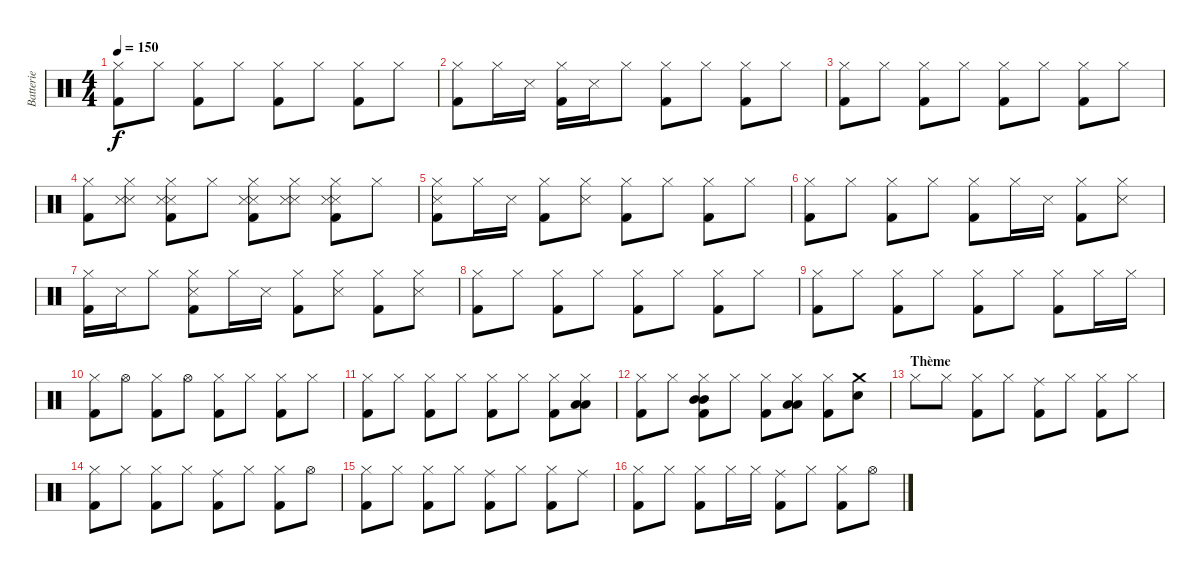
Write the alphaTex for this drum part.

\track ("Batterie" "Batterie") {instrument percussion}
\staff {score}
\articulation defaults
\ts (4 4)
\tempo 150
\clef neutral
\ks c
("Hi-Hat (closed)" "Kick (hit) 2").8{dy f} "Hi-Hat (closed)".8 ("Hi-Hat (closed)" "Kick (hit) 2").8 "Hi-Hat (closed)".8 ("Hi-Hat (closed)" "Kick (hit) 2").8 "Hi-Hat (closed)".8 ("Hi-Hat (closed)" "Kick (hit) 2").8 "Hi-Hat (closed)".8 |
("Hi-Hat (closed)" "Kick (hit) 2").8 "Hi-Hat (closed)".16 "Snare (side stick) 3".16 ("Hi-Hat (closed)" "Kick (hit) 2").16 "Snare (side stick) 3".16 "Hi-Hat (closed)".8 ("Hi-Hat (closed)" "Kick (hit) 2").8 "Hi-Hat (closed)".8 ("Hi-Hat (closed)" "Kick (hit) 2").8 "Hi-Hat (closed)".8 |
("Hi-Hat (closed)" "Kick (hit) 2").8 "Hi-Hat (closed)".8 ("Hi-Hat (closed)" "Kick (hit) 2").8 "Hi-Hat (closed)".8 ("Hi-Hat (closed)" "Kick (hit) 2").8 "Hi-Hat (closed)".8 ("Hi-Hat (closed)" "Kick (hit) 2").8 "Hi-Hat (closed)".8 |
("Hi-Hat (closed)" "Kick (hit) 2").8 ("Hi-Hat (closed)" "Snare (side stick) 3" "Snare (side stick) 3").8 ("Hi-Hat (closed)" "Kick (hit) 2" "Snare (side stick) 3" "Snare (side stick) 3").8 "Hi-Hat (closed)".8 ("Hi-Hat (closed)" "Kick (hit) 2" "Snare (side stick) 3" "Snare (side stick) 3").8 ("Hi-Hat (closed)" "Snare (side stick) 3" "Snare (side stick) 3").8 ("Hi-Hat (closed)" "Kick (hit) 2" "Snare (side stick) 3" "Snare (side stick) 3").8 "Hi-Hat (closed)".8 |
("Hi-Hat (closed)" "Kick (hit) 2" "Snare (side stick) 3").8 "Hi-Hat (closed)".16 "Snare (side stick) 3".16 ("Hi-Hat (closed)" "Kick (hit) 2").8 ("Hi-Hat (closed)" "Snare (side stick) 3").8 ("Hi-Hat (closed)" "Kick (hit) 2").8 "Hi-Hat (closed)".8 ("Hi-Hat (closed)" "Kick (hit) 2").8 "Hi-Hat (closed)".8 |
("Hi-Hat (closed)" "Kick (hit) 2").8 "Hi-Hat (closed)".8 ("Hi-Hat (closed)" "Kick (hit) 2").8 "Hi-Hat (closed)".8 ("Hi-Hat (closed)" "Kick (hit) 2").8 "Hi-Hat (closed)".16 "Snare (side stick) 3".16 ("Hi-Hat (closed)" "Kick (hit) 2").8 ("Hi-Hat (closed)" "Snare (side stick) 3").8 |
("Hi-Hat (closed)" "Kick (hit) 2").16 "Snare (side stick) 3".16 "Hi-Hat (closed)".8 ("Hi-Hat (closed)" "Kick (hit) 2" "Snare (side stick) 3").8 "Hi-Hat (closed)".16 "Snare (side stick) 3".16 ("Hi-Hat (closed)" "Kick (hit) 2").8 ("Hi-Hat (closed)" "Snare (side stick) 3").8 ("Hi-Hat (closed)" "Kick (hit) 2").8 ("Hi-Hat (closed)" "Snare (side stick) 3").8 |
("Hi-Hat (closed)" "Kick (hit) 2").8 "Hi-Hat (closed)".8 ("Hi-Hat (closed)" "Kick (hit) 2").8 "Hi-Hat (closed)".8 ("Hi-Hat (closed)" "Kick (hit) 2").8 "Hi-Hat (closed)".8 ("Hi-Hat (closed)" "Kick (hit) 2").8 "Hi-Hat (closed)".8 |
("Hi-Hat (closed)" "Kick (hit) 2").8 "Hi-Hat (closed)".8 ("Hi-Hat (closed)" "Kick (hit) 2").8 "Hi-Hat (closed)".8 ("Hi-Hat (closed)" "Kick (hit) 2").8 "Hi-Hat (closed)".8 ("Hi-Hat (closed)" "Kick (hit) 2").8 "Hi-Hat (closed)".16 "Hi-Hat (closed)".16 |
("Hi-Hat (closed)" "Kick (hit) 2").8 "Hi-Hat (open)".8 ("Hi-Hat (closed)" "Kick (hit) 2").8 "Hi-Hat (open)".8 ("Hi-Hat (closed)" "Kick (hit) 2").8 "Hi-Hat (closed)".8 ("Hi-Hat (closed)" "Kick (hit) 2").8 "Hi-Hat (closed)".8 |
("Hi-Hat (closed)" "Kick (hit) 2").8 "Hi-Hat (closed)".8 ("Hi-Hat (closed)" "Kick (hit) 2").8 "Hi-Hat (closed)".8 ("Hi-Hat (closed)" "Kick (hit) 2").8 "Hi-Hat (closed)".8 ("Hi-Hat (closed)" "Kick (hit) 2").8 ("Hi-Hat (closed)" "Low Tom (hit)" "Low Tom (hit)").8 |
("Hi-Hat (closed)" "Kick (hit) 2").8 "Hi-Hat (closed)".8 ("Hi-Hat (closed)" "Kick (hit) 2" "Mid Tom (hit)" "Mid Tom (hit)").8 "Hi-Hat (closed)".8 ("Hi-Hat (closed)" "Kick (hit) 2").8 ("Hi-Hat (closed)" "Low Tom (hit)" "Low Tom (hit)").8 ("Hi-Hat (closed)" "Kick (hit) 2").8 ("Crash medium (hit)" "Electric Snare (hit)").8 |
\section ("" "Thème")
"Hi-Hat (closed)".8 "Hi-Hat (closed)".8 ("Hi-Hat (closed)" "Kick (hit) 2").8 "Hi-Hat (closed)".8 ("Ride (middle)" "Kick (hit) 2").8 "Hi-Hat (closed)".8 ("Hi-Hat (closed)" "Kick (hit) 2").8 "Hi-Hat (closed)".8 |
("Hi-Hat (closed)" "Kick (hit) 2").8 "Hi-Hat (closed)".8 ("Hi-Hat (closed)" "Kick (hit) 2").8 "Hi-Hat (closed)".8 ("Ride (middle)" "Kick (hit) 2").8 "Hi-Hat (closed)".8 ("Hi-Hat (closed)" "Kick (hit) 2").8 "Hi-Hat (open)".8 |
("Hi-Hat (closed)" "Kick (hit) 2").8 "Hi-Hat (closed)".8 ("Hi-Hat (closed)" "Kick (hit) 2").8 "Hi-Hat (closed)".8 ("Ride (middle)" "Kick (hit) 2").8 "Hi-Hat (closed)".8 ("Hi-Hat (closed)" "Kick (hit) 2").8 "Ride (middle)".8 |
("Hi-Hat (closed)" "Kick (hit) 2").8 "Hi-Hat (closed)".8 ("Hi-Hat (closed)" "Kick (hit) 2").8 "Hi-Hat (closed)".16 "Hi-Hat (closed)".16 ("Ride (middle)" "Kick (hit) 2").8 "Hi-Hat (closed)".8 ("Hi-Hat (closed)" "Kick (hit) 2").8 "Hi-Hat (open)".8
